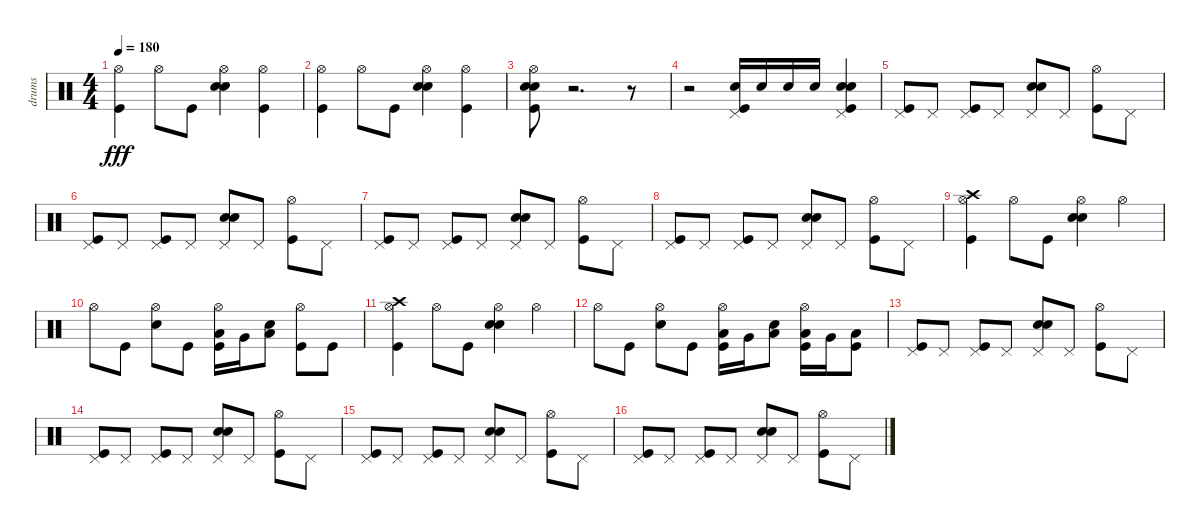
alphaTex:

\track ("drums" "drums") {instrument percussion}
\staff {score}
\articulation defaults
\ts (4 4)
\tempo 180
\clef neutral
\ks c
("Hi-Hat (open)" "Kick (hit)").4{dy fff} "Hi-Hat (open)".8 "Kick (hit)".8 ("Hi-Hat (open)" "Snare (hit) 2" "Electric Snare (hit)").4 ("Hi-Hat (open)" "Kick (hit)").4 |
("Hi-Hat (open)" "Kick (hit)").4 "Hi-Hat (open)".8 "Kick (hit)".8 ("Hi-Hat (open)" "Snare (hit) 2" "Electric Snare (hit)").4 ("Hi-Hat (open)" "Kick (hit)").4 |
("Hi-Hat (open)" "Electric Snare (hit)" "Snare (hit) 2" "Kick (hit)").8 r.2{d} r.8 |
r.2 ("Pedal Hi-Hat (hit)" "Kick (hit)" "Snare (hit) 2").16 "Snare (hit) 2".16 "Snare (hit) 2".16 "Snare (hit) 2".16 ("Snare (hit) 2" "Electric Snare (hit)" "Pedal Hi-Hat (hit)" "Kick (hit)").4 |
("Pedal Hi-Hat (hit)" "Kick (hit)").8 "Pedal Hi-Hat (hit)".8 ("Pedal Hi-Hat (hit)" "Kick (hit)").8 "Pedal Hi-Hat (hit)".8 ("Pedal Hi-Hat (hit)" "Electric Snare (hit)" "Snare (hit) 2").8 "Pedal Hi-Hat (hit)".8 ("Hi-Hat (open)" "Kick (hit)").8 "Pedal Hi-Hat (hit)".8 |
("Kick (hit)" "Pedal Hi-Hat (hit)").8 "Pedal Hi-Hat (hit)".8 ("Kick (hit)" "Pedal Hi-Hat (hit)").8 "Pedal Hi-Hat (hit)".8 ("Snare (hit) 2" "Electric Snare (hit)" "Pedal Hi-Hat (hit)").8 "Pedal Hi-Hat (hit)".8 ("Hi-Hat (open)" "Kick (hit)").8 "Pedal Hi-Hat (hit)".8 |
("Pedal Hi-Hat (hit)" "Kick (hit)").8 "Pedal Hi-Hat (hit)".8 ("Pedal Hi-Hat (hit)" "Kick (hit)").8 "Pedal Hi-Hat (hit)".8 ("Pedal Hi-Hat (hit)" "Electric Snare (hit)" "Snare (hit) 2").8 "Pedal Hi-Hat (hit)".8 ("Hi-Hat (open)" "Kick (hit)").8 "Pedal Hi-Hat (hit)".8 |
("Kick (hit)" "Pedal Hi-Hat (hit)").8 "Pedal Hi-Hat (hit)".8 ("Kick (hit)" "Pedal Hi-Hat (hit)").8 "Pedal Hi-Hat (hit)".8 ("Snare (hit) 2" "Electric Snare (hit)" "Pedal Hi-Hat (hit)").8 "Pedal Hi-Hat (hit)".8 ("Hi-Hat (open)" "Kick (hit)").8 "Pedal Hi-Hat (hit)".8 |
("Kick (hit)" "Hi-Hat (open)" "Crash high (hit)").4 "Hi-Hat (open)".8 "Kick (hit)".8 ("Snare (hit) 2" "Electric Snare (hit)" "Hi-Hat (open)").4 "Hi-Hat (open)".4 |
"Hi-Hat (open)".8 "Kick (hit)".8 ("Snare (hit) 2" "Hi-Hat (open)").8 "Kick (hit)".8 ("Kick (hit)" "Hi-Hat (open)" "Low Tom (hit)").16 "Very Low Tom (hit)".16 ("Snare (hit) 2" "Low Floor Tom (hit)").8 ("Kick (hit)" "Hi-Hat (open)").8 "Kick (hit)".8 |
("Crash high (hit)" "Hi-Hat (open)" "Kick (hit)").4 "Hi-Hat (open)".8 "Kick (hit)".8 ("Snare (hit) 2" "Electric Snare (hit)" "Hi-Hat (open)").4 "Hi-Hat (open)".4 |
"Hi-Hat (open)".8 "Kick (hit)".8 ("Snare (hit) 2" "Hi-Hat (open)").8 "Kick (hit)".8 ("Kick (hit)" "Hi-Hat (open)" "Low Tom (hit)").16 "Very Low Tom (hit)".16 ("Snare (hit) 2" "Low Floor Tom (hit)").8 ("Kick (hit)" "Hi-Hat (open)" "Low Floor Tom (hit)").16 "Very Low Tom (hit)".16 ("Kick (hit)" "Low Floor Tom (hit)").8 |
("Pedal Hi-Hat (hit)" "Kick (hit)").8 "Pedal Hi-Hat (hit)".8 ("Pedal Hi-Hat (hit)" "Kick (hit)").8 "Pedal Hi-Hat (hit)".8 ("Pedal Hi-Hat (hit)" "Electric Snare (hit)" "Snare (hit) 2").8 "Pedal Hi-Hat (hit)".8 ("Hi-Hat (open)" "Kick (hit)").8 "Pedal Hi-Hat (hit)".8 |
("Kick (hit)" "Pedal Hi-Hat (hit)").8 "Pedal Hi-Hat (hit)".8 ("Kick (hit)" "Pedal Hi-Hat (hit)").8 "Pedal Hi-Hat (hit)".8 ("Snare (hit) 2" "Electric Snare (hit)" "Pedal Hi-Hat (hit)").8 "Pedal Hi-Hat (hit)".8 ("Hi-Hat (open)" "Kick (hit)").8 "Pedal Hi-Hat (hit)".8 |
("Pedal Hi-Hat (hit)" "Kick (hit)").8 "Pedal Hi-Hat (hit)".8 ("Pedal Hi-Hat (hit)" "Kick (hit)").8 "Pedal Hi-Hat (hit)".8 ("Pedal Hi-Hat (hit)" "Electric Snare (hit)" "Snare (hit) 2").8 "Pedal Hi-Hat (hit)".8 ("Hi-Hat (open)" "Kick (hit)").8 "Pedal Hi-Hat (hit)".8 |
("Kick (hit)" "Pedal Hi-Hat (hit)").8 "Pedal Hi-Hat (hit)".8 ("Kick (hit)" "Pedal Hi-Hat (hit)").8 "Pedal Hi-Hat (hit)".8 ("Snare (hit) 2" "Electric Snare (hit)" "Pedal Hi-Hat (hit)").8 "Pedal Hi-Hat (hit)".8 ("Hi-Hat (open)" "Kick (hit)").8 "Pedal Hi-Hat (hit)".8
